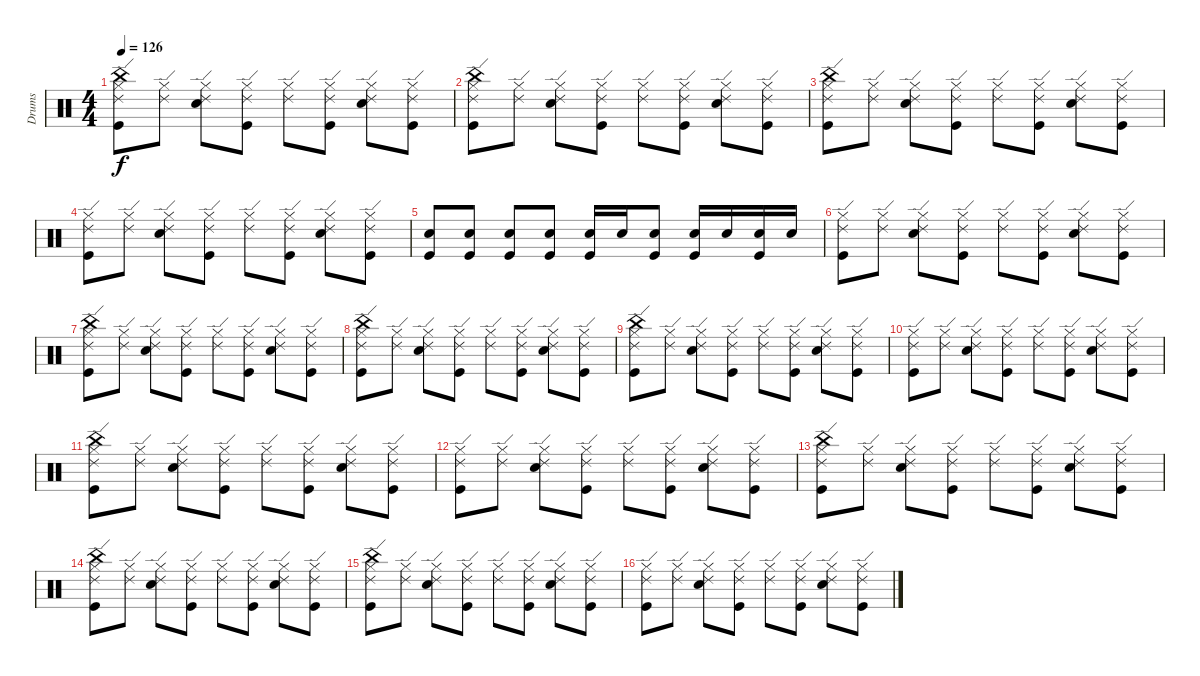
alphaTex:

\track ("Drums" "Drums") {instrument percussion}
\staff {score}
\articulation defaults
\ts (4 4)
\tempo 126
\clef neutral
\ks c
("Hi-Hat (closed)" "China (hit)" "Ride (edge) 2" "Kick (hit)").8{dy f} ("Hi-Hat (closed)" "Ride (edge) 2").8 ("Hi-Hat (closed)" "Ride (edge) 2" "Electric Snare (hit)").8 ("Hi-Hat (closed)" "Ride (edge) 2" "Kick (hit)").8 ("Hi-Hat (closed)" "Ride (edge) 2").8 ("Hi-Hat (closed)" "Ride (edge) 2" "Kick (hit)").8 ("Hi-Hat (closed)" "Ride (edge) 2" "Electric Snare (hit)").8 ("Hi-Hat (closed)" "Ride (edge) 2" "Kick (hit)").8 |
("Hi-Hat (closed)" "China (hit)" "Ride (edge) 2" "Kick (hit)").8 ("Hi-Hat (closed)" "Ride (edge) 2").8 ("Hi-Hat (closed)" "Ride (edge) 2" "Electric Snare (hit)").8 ("Hi-Hat (closed)" "Ride (edge) 2" "Kick (hit)").8 ("Hi-Hat (closed)" "Ride (edge) 2").8 ("Hi-Hat (closed)" "Ride (edge) 2" "Kick (hit)").8 ("Hi-Hat (closed)" "Ride (edge) 2" "Electric Snare (hit)").8 ("Hi-Hat (closed)" "Ride (edge) 2" "Kick (hit)").8 |
("Hi-Hat (closed)" "China (hit)" "Ride (edge) 2" "Kick (hit)").8 ("Hi-Hat (closed)" "Ride (edge) 2").8 ("Hi-Hat (closed)" "Ride (edge) 2" "Electric Snare (hit)").8 ("Hi-Hat (closed)" "Ride (edge) 2" "Kick (hit)").8 ("Hi-Hat (closed)" "Ride (edge) 2").8 ("Hi-Hat (closed)" "Ride (edge) 2" "Kick (hit)").8 ("Hi-Hat (closed)" "Ride (edge) 2" "Electric Snare (hit)").8 ("Hi-Hat (closed)" "Ride (edge) 2" "Kick (hit)").8 |
("Hi-Hat (closed)" "Ride (edge) 2" "Kick (hit)").8 ("Hi-Hat (closed)" "Ride (edge) 2").8 ("Hi-Hat (closed)" "Ride (edge) 2" "Electric Snare (hit)").8 ("Hi-Hat (closed)" "Ride (edge) 2" "Kick (hit)").8 ("Hi-Hat (closed)" "Ride (edge) 2").8 ("Hi-Hat (closed)" "Ride (edge) 2" "Kick (hit)").8 ("Hi-Hat (closed)" "Ride (edge) 2" "Electric Snare (hit)").8 ("Hi-Hat (closed)" "Ride (edge) 2" "Kick (hit)").8 |
("Electric Snare (hit)" "Kick (hit)").8 ("Electric Snare (hit)" "Kick (hit)").8 ("Electric Snare (hit)" "Kick (hit)").8 ("Electric Snare (hit)" "Kick (hit)").8 ("Electric Snare (hit)" "Kick (hit)").16 "Electric Snare (hit)".16 ("Electric Snare (hit)" "Kick (hit)").8 ("Electric Snare (hit)" "Kick (hit)").16 "Electric Snare (hit)".16 ("Electric Snare (hit)" "Kick (hit)").16 "Electric Snare (hit)".16 |
("Hi-Hat (closed)" "Ride (edge) 2" "Kick (hit)").8 ("Hi-Hat (closed)" "Ride (edge) 2").8 ("Hi-Hat (closed)" "Ride (edge) 2" "Electric Snare (hit)").8 ("Hi-Hat (closed)" "Ride (edge) 2" "Kick (hit)").8 ("Hi-Hat (closed)" "Ride (edge) 2").8 ("Hi-Hat (closed)" "Ride (edge) 2" "Kick (hit)").8 ("Hi-Hat (closed)" "Ride (edge) 2" "Electric Snare (hit)").8 ("Hi-Hat (closed)" "Ride (edge) 2" "Kick (hit)").8 |
("Hi-Hat (closed)" "China (hit)" "Ride (edge) 2" "Kick (hit)").8 ("Hi-Hat (closed)" "Ride (edge) 2").8 ("Hi-Hat (closed)" "Ride (edge) 2" "Electric Snare (hit)").8 ("Hi-Hat (closed)" "Ride (edge) 2" "Kick (hit)").8 ("Hi-Hat (closed)" "Ride (edge) 2").8 ("Hi-Hat (closed)" "Ride (edge) 2" "Kick (hit)").8 ("Hi-Hat (closed)" "Ride (edge) 2" "Electric Snare (hit)").8 ("Hi-Hat (closed)" "Ride (edge) 2" "Kick (hit)").8 |
("Hi-Hat (closed)" "China (hit)" "Ride (edge) 2" "Kick (hit)").8 ("Hi-Hat (closed)" "Ride (edge) 2").8 ("Hi-Hat (closed)" "Ride (edge) 2" "Electric Snare (hit)").8 ("Hi-Hat (closed)" "Ride (edge) 2" "Kick (hit)").8 ("Hi-Hat (closed)" "Ride (edge) 2").8 ("Hi-Hat (closed)" "Ride (edge) 2" "Kick (hit)").8 ("Hi-Hat (closed)" "Ride (edge) 2" "Electric Snare (hit)").8 ("Hi-Hat (closed)" "Ride (edge) 2" "Kick (hit)").8 |
("Hi-Hat (closed)" "China (hit)" "Ride (edge) 2" "Kick (hit)").8 ("Hi-Hat (closed)" "Ride (edge) 2").8 ("Hi-Hat (closed)" "Ride (edge) 2" "Electric Snare (hit)").8 ("Hi-Hat (closed)" "Ride (edge) 2" "Kick (hit)").8 ("Hi-Hat (closed)" "Ride (edge) 2").8 ("Hi-Hat (closed)" "Ride (edge) 2" "Kick (hit)").8 ("Hi-Hat (closed)" "Ride (edge) 2" "Electric Snare (hit)").8 ("Hi-Hat (closed)" "Ride (edge) 2" "Kick (hit)").8 |
("Hi-Hat (closed)" "Ride (edge) 2" "Kick (hit)").8 ("Hi-Hat (closed)" "Ride (edge) 2").8 ("Hi-Hat (closed)" "Ride (edge) 2" "Electric Snare (hit)").8 ("Hi-Hat (closed)" "Ride (edge) 2" "Kick (hit)").8 ("Hi-Hat (closed)" "Ride (edge) 2").8 ("Hi-Hat (closed)" "Ride (edge) 2" "Kick (hit)").8 ("Hi-Hat (closed)" "Ride (edge) 2" "Electric Snare (hit)").8 ("Hi-Hat (closed)" "Ride (edge) 2" "Kick (hit)").8 |
("Hi-Hat (closed)" "China (hit)" "Ride (edge) 2" "Kick (hit)").8 ("Hi-Hat (closed)" "Ride (edge) 2").8 ("Hi-Hat (closed)" "Ride (edge) 2" "Electric Snare (hit)").8 ("Hi-Hat (closed)" "Ride (edge) 2" "Kick (hit)").8 ("Hi-Hat (closed)" "Ride (edge) 2").8 ("Hi-Hat (closed)" "Ride (edge) 2" "Kick (hit)").8 ("Hi-Hat (closed)" "Ride (edge) 2" "Electric Snare (hit)").8 ("Hi-Hat (closed)" "Ride (edge) 2" "Kick (hit)").8 |
("Hi-Hat (closed)" "Ride (edge) 2" "Kick (hit)").8 ("Hi-Hat (closed)" "Ride (edge) 2").8 ("Hi-Hat (closed)" "Ride (edge) 2" "Electric Snare (hit)").8 ("Hi-Hat (closed)" "Ride (edge) 2" "Kick (hit)").8 ("Hi-Hat (closed)" "Ride (edge) 2").8 ("Hi-Hat (closed)" "Ride (edge) 2" "Kick (hit)").8 ("Hi-Hat (closed)" "Ride (edge) 2" "Electric Snare (hit)").8 ("Hi-Hat (closed)" "Ride (edge) 2" "Kick (hit)").8 |
("Hi-Hat (closed)" "China (hit)" "Ride (edge) 2" "Kick (hit)").8 ("Hi-Hat (closed)" "Ride (edge) 2").8 ("Hi-Hat (closed)" "Ride (edge) 2" "Electric Snare (hit)").8 ("Hi-Hat (closed)" "Ride (edge) 2" "Kick (hit)").8 ("Hi-Hat (closed)" "Ride (edge) 2").8 ("Hi-Hat (closed)" "Ride (edge) 2" "Kick (hit)").8 ("Hi-Hat (closed)" "Ride (edge) 2" "Electric Snare (hit)").8 ("Hi-Hat (closed)" "Ride (edge) 2" "Kick (hit)").8 |
("Hi-Hat (closed)" "China (hit)" "Ride (edge) 2" "Kick (hit)").8 ("Hi-Hat (closed)" "Ride (edge) 2").8 ("Hi-Hat (closed)" "Ride (edge) 2" "Electric Snare (hit)").8 ("Hi-Hat (closed)" "Ride (edge) 2" "Kick (hit)").8 ("Hi-Hat (closed)" "Ride (edge) 2").8 ("Hi-Hat (closed)" "Ride (edge) 2" "Kick (hit)").8 ("Hi-Hat (closed)" "Ride (edge) 2" "Electric Snare (hit)").8 ("Hi-Hat (closed)" "Ride (edge) 2" "Kick (hit)").8 |
("Hi-Hat (closed)" "China (hit)" "Ride (edge) 2" "Kick (hit)").8 ("Hi-Hat (closed)" "Ride (edge) 2").8 ("Hi-Hat (closed)" "Ride (edge) 2" "Electric Snare (hit)").8 ("Hi-Hat (closed)" "Ride (edge) 2" "Kick (hit)").8 ("Hi-Hat (closed)" "Ride (edge) 2").8 ("Hi-Hat (closed)" "Ride (edge) 2" "Kick (hit)").8 ("Hi-Hat (closed)" "Ride (edge) 2" "Electric Snare (hit)").8 ("Hi-Hat (closed)" "Ride (edge) 2" "Kick (hit)").8 |
("Hi-Hat (closed)" "Ride (edge) 2" "Kick (hit)").8 ("Hi-Hat (closed)" "Ride (edge) 2").8 ("Hi-Hat (closed)" "Ride (edge) 2" "Electric Snare (hit)").8 ("Hi-Hat (closed)" "Ride (edge) 2" "Kick (hit)").8 ("Hi-Hat (closed)" "Ride (edge) 2").8 ("Hi-Hat (closed)" "Ride (edge) 2" "Kick (hit)").8 ("Hi-Hat (closed)" "Ride (edge) 2" "Electric Snare (hit)").8 ("Hi-Hat (closed)" "Ride (edge) 2" "Kick (hit)").8
